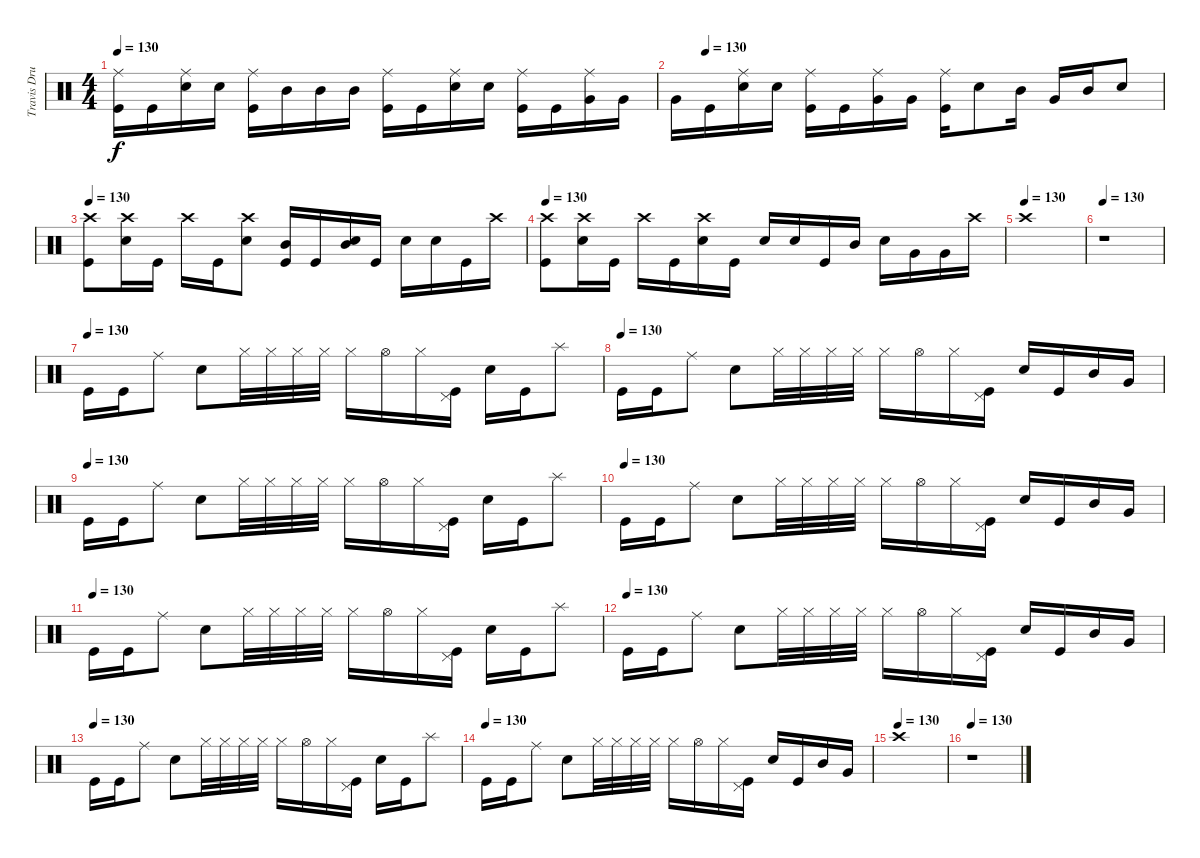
\track ("Travis Drums" "Travis Dru") {instrument percussion}
\staff {score}
\articulation defaults
\ts (4 4)
\tempo 130
\clef neutral
\ks c
("Ride (middle)" "Kick (hit)").16{dy f} "Kick (hit)".16 ("Ride (middle)" "Snare (hit) 2").16 "Snare (hit) 2".16 ("Ride (middle)" "Kick (hit)").16 "Mid Tom (hit)".16 "Mid Tom (hit)".16 "Mid Tom (hit)".16 ("Ride (middle)" "Kick (hit)").16 "Kick (hit)".16 ("Ride (middle)" "Snare (hit) 2").16 "Snare (hit) 2".16 ("Ride (middle)" "Kick (hit)").16 "Kick (hit)".16 ("Ride (middle)" "Very Low Tom (hit)").16 "Very Low Tom (hit)".16 |
\tempo (130 0.0625)
"Very Low Tom (hit)".16 "Kick (hit)".16 ("Ride (middle)" "Snare (hit) 2").16 "Snare (hit) 2".16 ("Ride (middle)" "Kick (hit)").16 "Kick (hit)".16 ("Ride (middle)" "Very Low Tom (hit)").16 "Very Low Tom (hit)".16 ("Ride (middle)" "Kick (hit)").16 "Snare (hit) 2".8 "Mid Tom (hit)".16 "Very Low Tom (hit)".16 "Mid Tom (hit)".16 "Snare (hit) 2".8 |
\tempo 130
("Crash high (hit)" "Kick (hit)").8 ("Crash high (hit)" "Snare (hit) 2").16 "Kick (hit)".16 "Crash high (hit)".16 "Kick (hit)".16 ("Crash high (hit)" "Snare (hit) 2").8 ("Mid Tom (hit)" "Kick (hit)").16 "Kick (hit)".16 ("Mid Tom (hit)" "Snare (hit) 2").16 "Kick (hit)".16 "Snare (hit) 2".16 "Snare (hit) 2".16 "Kick (hit)".16 "Crash high (hit)".16 |
\tempo 130
("Crash high (hit)" "Kick (hit)").8 ("Crash high (hit)" "Snare (hit) 2").16 "Kick (hit)".16 "Crash high (hit)".16 "Kick (hit)".16 ("Crash high (hit)" "Snare (hit) 2").16 "Kick (hit)".16 "Snare (hit) 2".16 "Snare (hit) 2".16 "Kick (hit)".16 "Mid Tom (hit)".16 "Snare (hit) 2".16 "Very Low Tom (hit)".16 "Very Low Tom (hit)".16 "Crash high (hit)".16 |
\tempo (130)
"Crash high (hit)".1 |
\tempo 130
r.1 |
\tempo (130)
"Kick (hit)".16 "Kick (hit)".16 "Ride (middle)".8 "Snare (hit) 2".8 "Hi-Hat (closed)".32 "Hi-Hat (closed)".32 "Hi-Hat (closed)".32 "Hi-Hat (closed)".32 "Hi-Hat (closed)".16 "Hi-Hat (open)".16 "Hi-Hat (closed)".16 ("Pedal Hi-Hat (hit)" "Kick (hit)").16 "Snare (hit) 2".16 "Kick (hit)".16 "Splash (hit)".8 |
\tempo (130)
"Kick (hit)".16 "Kick (hit)".16 "Ride (middle)".8 "Snare (hit) 2".8 "Hi-Hat (closed)".32 "Hi-Hat (closed)".32 "Hi-Hat (closed)".32 "Hi-Hat (closed)".32 "Hi-Hat (closed)".16 "Hi-Hat (open)".16 "Hi-Hat (closed)".16 ("Pedal Hi-Hat (hit)" "Kick (hit)").16 "Snare (hit) 2".16 "Kick (hit)".16 "Mid Tom (hit)".16 "Very Low Tom (hit)".16 |
\tempo (130)
"Kick (hit)".16 "Kick (hit)".16 "Ride (middle)".8 "Snare (hit) 2".8 "Hi-Hat (closed)".32 "Hi-Hat (closed)".32 "Hi-Hat (closed)".32 "Hi-Hat (closed)".32 "Hi-Hat (closed)".16 "Hi-Hat (open)".16 "Hi-Hat (closed)".16 ("Pedal Hi-Hat (hit)" "Kick (hit)").16 "Snare (hit) 2".16 "Kick (hit)".16 "Splash (hit)".8 |
\tempo (130)
"Kick (hit)".16 "Kick (hit)".16 "Ride (middle)".8 "Snare (hit) 2".8 "Hi-Hat (closed)".32 "Hi-Hat (closed)".32 "Hi-Hat (closed)".32 "Hi-Hat (closed)".32 "Hi-Hat (closed)".16 "Hi-Hat (open)".16 "Hi-Hat (closed)".16 ("Pedal Hi-Hat (hit)" "Kick (hit)").16 "Snare (hit) 2".16 "Kick (hit)".16 "Mid Tom (hit)".16 "Very Low Tom (hit)".16 |
\tempo (130)
"Kick (hit)".16 "Kick (hit)".16 "Ride (middle)".8 "Snare (hit) 2".8 "Hi-Hat (closed)".32 "Hi-Hat (closed)".32 "Hi-Hat (closed)".32 "Hi-Hat (closed)".32 "Hi-Hat (closed)".16 "Hi-Hat (open)".16 "Hi-Hat (closed)".16 ("Pedal Hi-Hat (hit)" "Kick (hit)").16 "Snare (hit) 2".16 "Kick (hit)".16 "Splash (hit)".8 |
\tempo (130)
"Kick (hit)".16 "Kick (hit)".16 "Ride (middle)".8 "Snare (hit) 2".8 "Hi-Hat (closed)".32 "Hi-Hat (closed)".32 "Hi-Hat (closed)".32 "Hi-Hat (closed)".32 "Hi-Hat (closed)".16 "Hi-Hat (open)".16 "Hi-Hat (closed)".16 ("Pedal Hi-Hat (hit)" "Kick (hit)").16 "Snare (hit) 2".16 "Kick (hit)".16 "Mid Tom (hit)".16 "Very Low Tom (hit)".16 |
\tempo (130)
"Kick (hit)".16 "Kick (hit)".16 "Ride (middle)".8 "Snare (hit) 2".8 "Hi-Hat (closed)".32 "Hi-Hat (closed)".32 "Hi-Hat (closed)".32 "Hi-Hat (closed)".32 "Hi-Hat (closed)".16 "Hi-Hat (open)".16 "Hi-Hat (closed)".16 ("Pedal Hi-Hat (hit)" "Kick (hit)").16 "Snare (hit) 2".16 "Kick (hit)".16 "Splash (hit)".8 |
\tempo (130)
"Kick (hit)".16 "Kick (hit)".16 "Ride (middle)".8 "Snare (hit) 2".8 "Hi-Hat (closed)".32 "Hi-Hat (closed)".32 "Hi-Hat (closed)".32 "Hi-Hat (closed)".32 "Hi-Hat (closed)".16 "Hi-Hat (open)".16 "Hi-Hat (closed)".16 ("Pedal Hi-Hat (hit)" "Kick (hit)").16 "Snare (hit) 2".16 "Kick (hit)".16 "Mid Tom (hit)".16 "Very Low Tom (hit)".16 |
\tempo (130)
"Crash high (hit)".1 |
\tempo 130
r.1
